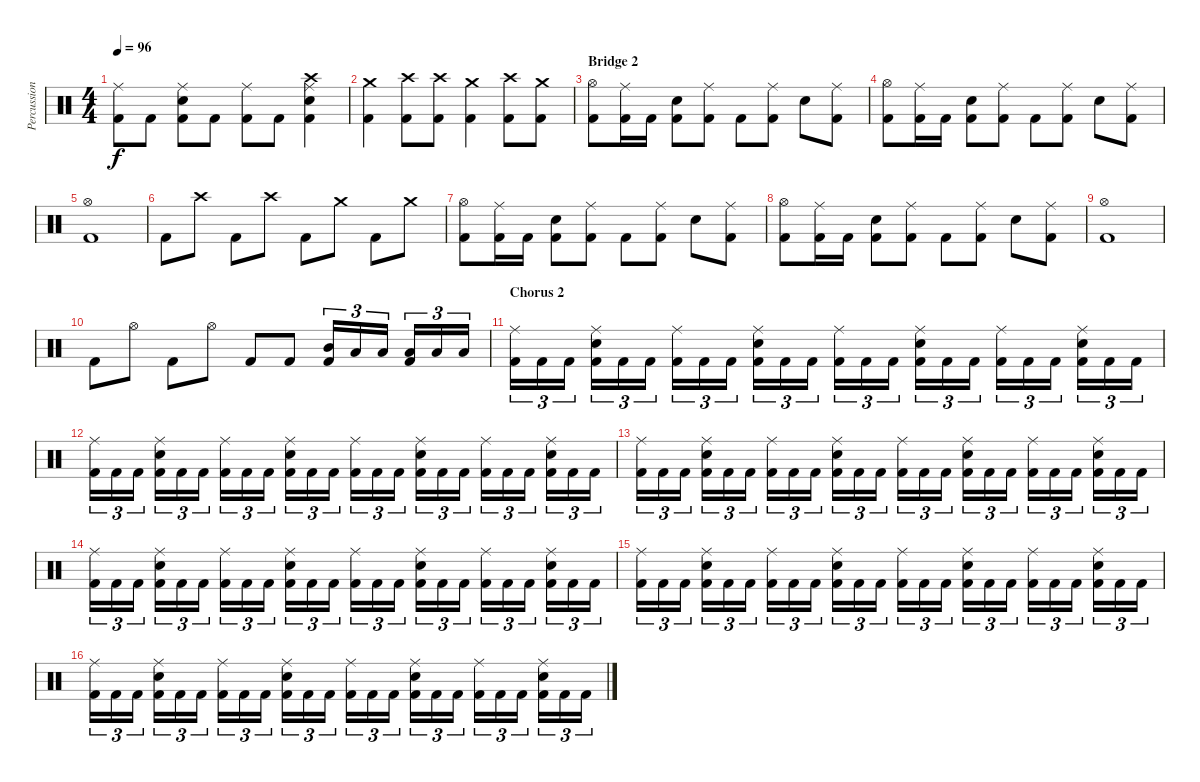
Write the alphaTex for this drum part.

\track ("Percussion" "Percussion") {instrument percussion}
\staff {score}
\articulation defaults
\ts (4 4)
\tempo 96
\clef neutral
\ks c
("Ride (middle)" "Kick (hit) 2").8{dy f} "Kick (hit) 2".8 ("Snare (hit) 2" "Ride (middle)" "Kick (hit) 2").8 "Kick (hit) 2".8 ("Ride (middle)" "Kick (hit) 2").8 "Kick (hit) 2".8 ("Crash high (hit)" "Snare (hit) 2" "Ride (middle)" "Kick (hit) 2").4 |
("Crash medium (hit)" "Kick (hit) 2").4 ("Crash high (hit)" "Kick (hit) 2").8 ("Crash high (hit)" "Kick (hit) 2").8 ("Crash medium (hit)" "Kick (hit) 2").4 ("Crash high (hit)" "Kick (hit) 2").8 ("Crash medium (hit)" "Kick (hit) 2").8 |
\section ("" "Bridge 2")
("Hi-Hat (open)" "Kick (hit) 2").8 ("Ride (middle)" "Kick (hit) 2").16 "Kick (hit) 2".16 ("Snare (hit) 2" "Kick (hit) 2").8 ("Ride (middle)" "Kick (hit) 2").8 "Kick (hit) 2".8 ("Ride (middle)" "Kick (hit) 2").8 "Snare (hit) 2".8 ("Ride (middle)" "Kick (hit) 2").8 |
("Hi-Hat (open)" "Kick (hit) 2").8 ("Ride (middle)" "Kick (hit) 2").16 "Kick (hit) 2".16 ("Snare (hit) 2" "Kick (hit) 2").8 ("Ride (middle)" "Kick (hit) 2").8 "Kick (hit) 2".8 ("Ride (middle)" "Kick (hit) 2").8 "Snare (hit) 2".8 ("Ride (middle)" "Kick (hit) 2").8 |
("Hi-Hat (open)" "Kick (hit) 2").1 |
"Kick (hit) 2".8 "Crash high (hit)".8 "Kick (hit) 2".8 "Crash high (hit)".8 "Kick (hit) 2".8 "Crash medium (hit)".8 "Kick (hit) 2".8 "Crash medium (hit)".8 |
("Hi-Hat (open)" "Kick (hit) 2").8 ("Ride (middle)" "Kick (hit) 2").16 "Kick (hit) 2".16 ("Snare (hit) 2" "Kick (hit) 2").8 ("Ride (middle)" "Kick (hit) 2").8 "Kick (hit) 2".8 ("Ride (middle)" "Kick (hit) 2").8 "Snare (hit) 2".8 ("Ride (middle)" "Kick (hit) 2").8 |
("Hi-Hat (open)" "Kick (hit) 2").8 ("Ride (middle)" "Kick (hit) 2").16 "Kick (hit) 2".16 ("Snare (hit) 2" "Kick (hit) 2").8 ("Ride (middle)" "Kick (hit) 2").8 "Kick (hit) 2".8 ("Ride (middle)" "Kick (hit) 2").8 "Snare (hit) 2".8 ("Ride (middle)" "Kick (hit) 2").8 |
("Hi-Hat (open)" "Kick (hit) 2").1 |
"Kick (hit) 2".8 "Hi-Hat (open)".8 "Kick (hit) 2".8 "Hi-Hat (open)".8 "Kick (hit) 2".8 "Kick (hit) 2".8 ("Mid Tom (hit)" "Kick (hit) 2").16{tu (3 2)} "Low Tom (hit)".16{tu (3 2)} "Low Floor Tom (hit)".16{tu (3 2)} ("Low Floor Tom (hit)" "Kick (hit) 2").16{tu (3 2)} "Low Tom (hit)".16{tu (3 2)} "Low Floor Tom (hit)".16{tu (3 2)} |
\section ("" "Chorus 2")
("Ride (middle)" "Kick (hit) 2").16{tu (3 2)} "Kick (hit) 2".16{tu (3 2)} "Kick (hit) 2".16{tu (3 2)} ("Ride (middle)" "Snare (hit) 2" "Kick (hit) 2").16{tu (3 2)} "Kick (hit) 2".16{tu (3 2)} "Kick (hit) 2".16{tu (3 2)} ("Ride (middle)" "Kick (hit) 2").16{tu (3 2)} "Kick (hit) 2".16{tu (3 2)} "Kick (hit) 2".16{tu (3 2)} ("Ride (middle)" "Snare (hit) 2" "Kick (hit) 2").16{tu (3 2)} "Kick (hit) 2".16{tu (3 2)} "Kick (hit) 2".16{tu (3 2)} ("Ride (middle)" "Kick (hit) 2").16{tu (3 2)} "Kick (hit) 2".16{tu (3 2)} "Kick (hit) 2".16{tu (3 2)} ("Ride (middle)" "Snare (hit) 2" "Kick (hit) 2").16{tu (3 2)} "Kick (hit) 2".16{tu (3 2)} "Kick (hit) 2".16{tu (3 2)} ("Ride (middle)" "Kick (hit) 2").16{tu (3 2)} "Kick (hit) 2".16{tu (3 2)} "Kick (hit) 2".16{tu (3 2)} ("Ride (middle)" "Snare (hit) 2" "Kick (hit) 2").16{tu (3 2)} "Kick (hit) 2".16{tu (3 2)} "Kick (hit) 2".16{tu (3 2)} |
("Ride (middle)" "Kick (hit) 2").16{tu (3 2)} "Kick (hit) 2".16{tu (3 2)} "Kick (hit) 2".16{tu (3 2)} ("Ride (middle)" "Snare (hit) 2" "Kick (hit) 2").16{tu (3 2)} "Kick (hit) 2".16{tu (3 2)} "Kick (hit) 2".16{tu (3 2)} ("Ride (middle)" "Kick (hit) 2").16{tu (3 2)} "Kick (hit) 2".16{tu (3 2)} "Kick (hit) 2".16{tu (3 2)} ("Ride (middle)" "Snare (hit) 2" "Kick (hit) 2").16{tu (3 2)} "Kick (hit) 2".16{tu (3 2)} "Kick (hit) 2".16{tu (3 2)} ("Ride (middle)" "Kick (hit) 2").16{tu (3 2)} "Kick (hit) 2".16{tu (3 2)} "Kick (hit) 2".16{tu (3 2)} ("Ride (middle)" "Snare (hit) 2" "Kick (hit) 2").16{tu (3 2)} "Kick (hit) 2".16{tu (3 2)} "Kick (hit) 2".16{tu (3 2)} ("Ride (middle)" "Kick (hit) 2").16{tu (3 2)} "Kick (hit) 2".16{tu (3 2)} "Kick (hit) 2".16{tu (3 2)} ("Ride (middle)" "Snare (hit) 2" "Kick (hit) 2").16{tu (3 2)} "Kick (hit) 2".16{tu (3 2)} "Kick (hit) 2".16{tu (3 2)} |
("Ride (middle)" "Kick (hit) 2").16{tu (3 2)} "Kick (hit) 2".16{tu (3 2)} "Kick (hit) 2".16{tu (3 2)} ("Ride (middle)" "Snare (hit) 2" "Kick (hit) 2").16{tu (3 2)} "Kick (hit) 2".16{tu (3 2)} "Kick (hit) 2".16{tu (3 2)} ("Ride (middle)" "Kick (hit) 2").16{tu (3 2)} "Kick (hit) 2".16{tu (3 2)} "Kick (hit) 2".16{tu (3 2)} ("Ride (middle)" "Snare (hit) 2" "Kick (hit) 2").16{tu (3 2)} "Kick (hit) 2".16{tu (3 2)} "Kick (hit) 2".16{tu (3 2)} ("Ride (middle)" "Kick (hit) 2").16{tu (3 2)} "Kick (hit) 2".16{tu (3 2)} "Kick (hit) 2".16{tu (3 2)} ("Ride (middle)" "Snare (hit) 2" "Kick (hit) 2").16{tu (3 2)} "Kick (hit) 2".16{tu (3 2)} "Kick (hit) 2".16{tu (3 2)} ("Ride (middle)" "Kick (hit) 2").16{tu (3 2)} "Kick (hit) 2".16{tu (3 2)} "Kick (hit) 2".16{tu (3 2)} ("Ride (middle)" "Snare (hit) 2" "Kick (hit) 2").16{tu (3 2)} "Kick (hit) 2".16{tu (3 2)} "Kick (hit) 2".16{tu (3 2)} |
("Ride (middle)" "Kick (hit) 2").16{tu (3 2)} "Kick (hit) 2".16{tu (3 2)} "Kick (hit) 2".16{tu (3 2)} ("Ride (middle)" "Snare (hit) 2" "Kick (hit) 2").16{tu (3 2)} "Kick (hit) 2".16{tu (3 2)} "Kick (hit) 2".16{tu (3 2)} ("Ride (middle)" "Kick (hit) 2").16{tu (3 2)} "Kick (hit) 2".16{tu (3 2)} "Kick (hit) 2".16{tu (3 2)} ("Ride (middle)" "Snare (hit) 2" "Kick (hit) 2").16{tu (3 2)} "Kick (hit) 2".16{tu (3 2)} "Kick (hit) 2".16{tu (3 2)} ("Ride (middle)" "Kick (hit) 2").16{tu (3 2)} "Kick (hit) 2".16{tu (3 2)} "Kick (hit) 2".16{tu (3 2)} ("Ride (middle)" "Snare (hit) 2" "Kick (hit) 2").16{tu (3 2)} "Kick (hit) 2".16{tu (3 2)} "Kick (hit) 2".16{tu (3 2)} ("Ride (middle)" "Kick (hit) 2").16{tu (3 2)} "Kick (hit) 2".16{tu (3 2)} "Kick (hit) 2".16{tu (3 2)} ("Ride (middle)" "Snare (hit) 2" "Kick (hit) 2").16{tu (3 2)} "Kick (hit) 2".16{tu (3 2)} "Kick (hit) 2".16{tu (3 2)} |
("Ride (middle)" "Kick (hit) 2").16{tu (3 2)} "Kick (hit) 2".16{tu (3 2)} "Kick (hit) 2".16{tu (3 2)} ("Ride (middle)" "Snare (hit) 2" "Kick (hit) 2").16{tu (3 2)} "Kick (hit) 2".16{tu (3 2)} "Kick (hit) 2".16{tu (3 2)} ("Ride (middle)" "Kick (hit) 2").16{tu (3 2)} "Kick (hit) 2".16{tu (3 2)} "Kick (hit) 2".16{tu (3 2)} ("Ride (middle)" "Snare (hit) 2" "Kick (hit) 2").16{tu (3 2)} "Kick (hit) 2".16{tu (3 2)} "Kick (hit) 2".16{tu (3 2)} ("Ride (middle)" "Kick (hit) 2").16{tu (3 2)} "Kick (hit) 2".16{tu (3 2)} "Kick (hit) 2".16{tu (3 2)} ("Ride (middle)" "Snare (hit) 2" "Kick (hit) 2").16{tu (3 2)} "Kick (hit) 2".16{tu (3 2)} "Kick (hit) 2".16{tu (3 2)} ("Ride (middle)" "Kick (hit) 2").16{tu (3 2)} "Kick (hit) 2".16{tu (3 2)} "Kick (hit) 2".16{tu (3 2)} ("Ride (middle)" "Snare (hit) 2" "Kick (hit) 2").16{tu (3 2)} "Kick (hit) 2".16{tu (3 2)} "Kick (hit) 2".16{tu (3 2)} |
("Ride (middle)" "Kick (hit) 2").16{tu (3 2)} "Kick (hit) 2".16{tu (3 2)} "Kick (hit) 2".16{tu (3 2)} ("Ride (middle)" "Snare (hit) 2" "Kick (hit) 2").16{tu (3 2)} "Kick (hit) 2".16{tu (3 2)} "Kick (hit) 2".16{tu (3 2)} ("Ride (middle)" "Kick (hit) 2").16{tu (3 2)} "Kick (hit) 2".16{tu (3 2)} "Kick (hit) 2".16{tu (3 2)} ("Ride (middle)" "Snare (hit) 2" "Kick (hit) 2").16{tu (3 2)} "Kick (hit) 2".16{tu (3 2)} "Kick (hit) 2".16{tu (3 2)} ("Ride (middle)" "Kick (hit) 2").16{tu (3 2)} "Kick (hit) 2".16{tu (3 2)} "Kick (hit) 2".16{tu (3 2)} ("Ride (middle)" "Snare (hit) 2" "Kick (hit) 2").16{tu (3 2)} "Kick (hit) 2".16{tu (3 2)} "Kick (hit) 2".16{tu (3 2)} ("Ride (middle)" "Kick (hit) 2").16{tu (3 2)} "Kick (hit) 2".16{tu (3 2)} "Kick (hit) 2".16{tu (3 2)} ("Ride (middle)" "Snare (hit) 2" "Kick (hit) 2").16{tu (3 2)} "Kick (hit) 2".16{tu (3 2)} "Kick (hit) 2".16{tu (3 2)}
